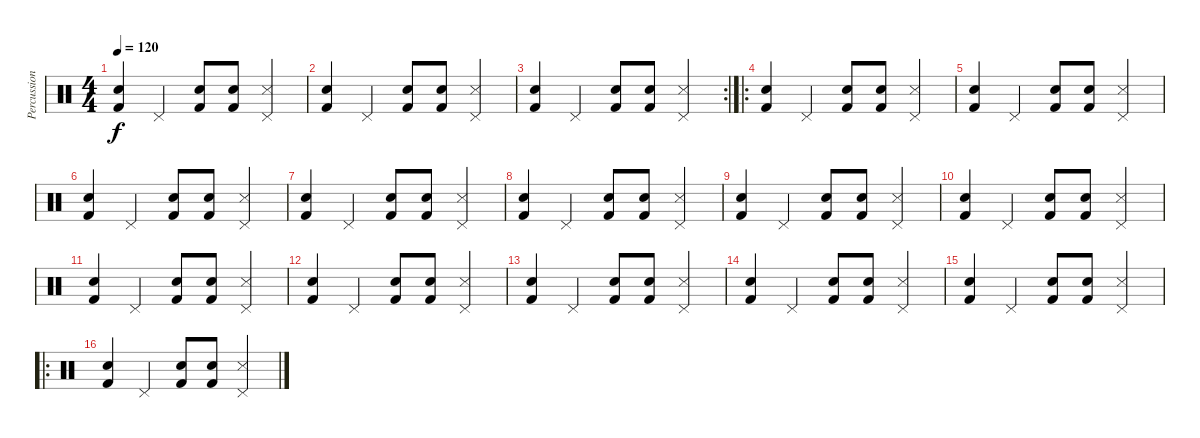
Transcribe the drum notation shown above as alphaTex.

\track ("Percussion" "Percussion") {instrument percussion}
\staff {score}
\articulation defaults
\ts (4 4)
\tempo 120
\clef neutral
\ks c
("Kick (hit) 2" "Snare (hit) 2").4{dy f} "Pedal Hi-Hat (hit)".4 ("Kick (hit) 2" "Snare (hit) 2").8 ("Kick (hit) 2" "Snare (hit) 2").8 ("Pedal Hi-Hat (hit)" "Snare (side stick) 3").4 |
("Kick (hit) 2" "Snare (hit) 2").4 "Pedal Hi-Hat (hit)".4 ("Kick (hit) 2" "Snare (hit) 2").8 ("Kick (hit) 2" "Snare (hit) 2").8 ("Pedal Hi-Hat (hit)" "Snare (side stick) 3").4 |
\rc 2
("Kick (hit) 2" "Snare (hit) 2").4 "Pedal Hi-Hat (hit)".4 ("Kick (hit) 2" "Snare (hit) 2").8 ("Kick (hit) 2" "Snare (hit) 2").8 ("Pedal Hi-Hat (hit)" "Snare (side stick) 3").4 |
\ro
("Kick (hit) 2" "Snare (hit) 2").4 "Pedal Hi-Hat (hit)".4 ("Kick (hit) 2" "Snare (hit) 2").8 ("Kick (hit) 2" "Snare (hit) 2").8 ("Pedal Hi-Hat (hit)" "Snare (side stick) 3").4 |
("Kick (hit) 2" "Snare (hit) 2").4 "Pedal Hi-Hat (hit)".4 ("Kick (hit) 2" "Snare (hit) 2").8 ("Kick (hit) 2" "Snare (hit) 2").8 ("Pedal Hi-Hat (hit)" "Snare (side stick) 3").4 |
("Kick (hit) 2" "Snare (hit) 2").4 "Pedal Hi-Hat (hit)".4 ("Kick (hit) 2" "Snare (hit) 2").8 ("Kick (hit) 2" "Snare (hit) 2").8 ("Pedal Hi-Hat (hit)" "Snare (side stick) 3").4 |
("Kick (hit) 2" "Snare (hit) 2").4 "Pedal Hi-Hat (hit)".4 ("Kick (hit) 2" "Snare (hit) 2").8 ("Kick (hit) 2" "Snare (hit) 2").8 ("Pedal Hi-Hat (hit)" "Snare (side stick) 3").4 |
("Kick (hit) 2" "Snare (hit) 2").4 "Pedal Hi-Hat (hit)".4 ("Kick (hit) 2" "Snare (hit) 2").8 ("Kick (hit) 2" "Snare (hit) 2").8 ("Pedal Hi-Hat (hit)" "Snare (side stick) 3").4 |
("Kick (hit) 2" "Snare (hit) 2").4 "Pedal Hi-Hat (hit)".4 ("Kick (hit) 2" "Snare (hit) 2").8 ("Kick (hit) 2" "Snare (hit) 2").8 ("Pedal Hi-Hat (hit)" "Snare (side stick) 3").4 |
("Kick (hit) 2" "Snare (hit) 2").4 "Pedal Hi-Hat (hit)".4 ("Kick (hit) 2" "Snare (hit) 2").8 ("Kick (hit) 2" "Snare (hit) 2").8 ("Pedal Hi-Hat (hit)" "Snare (side stick) 3").4 |
("Kick (hit) 2" "Snare (hit) 2").4 "Pedal Hi-Hat (hit)".4 ("Kick (hit) 2" "Snare (hit) 2").8 ("Kick (hit) 2" "Snare (hit) 2").8 ("Pedal Hi-Hat (hit)" "Snare (side stick) 3").4 |
("Kick (hit) 2" "Snare (hit) 2").4 "Pedal Hi-Hat (hit)".4 ("Kick (hit) 2" "Snare (hit) 2").8 ("Kick (hit) 2" "Snare (hit) 2").8 ("Pedal Hi-Hat (hit)" "Snare (side stick) 3").4 |
("Kick (hit) 2" "Snare (hit) 2").4 "Pedal Hi-Hat (hit)".4 ("Kick (hit) 2" "Snare (hit) 2").8 ("Kick (hit) 2" "Snare (hit) 2").8 ("Pedal Hi-Hat (hit)" "Snare (side stick) 3").4 |
("Kick (hit) 2" "Snare (hit) 2").4 "Pedal Hi-Hat (hit)".4 ("Kick (hit) 2" "Snare (hit) 2").8 ("Kick (hit) 2" "Snare (hit) 2").8 ("Pedal Hi-Hat (hit)" "Snare (side stick) 3").4 |
("Kick (hit) 2" "Snare (hit) 2").4 "Pedal Hi-Hat (hit)".4 ("Kick (hit) 2" "Snare (hit) 2").8 ("Kick (hit) 2" "Snare (hit) 2").8 ("Pedal Hi-Hat (hit)" "Snare (side stick) 3").4 |
\ro
("Kick (hit) 2" "Snare (hit) 2").4 "Pedal Hi-Hat (hit)".4 ("Kick (hit) 2" "Snare (hit) 2").8 ("Kick (hit) 2" "Snare (hit) 2").8 ("Pedal Hi-Hat (hit)" "Snare (side stick) 3").4
